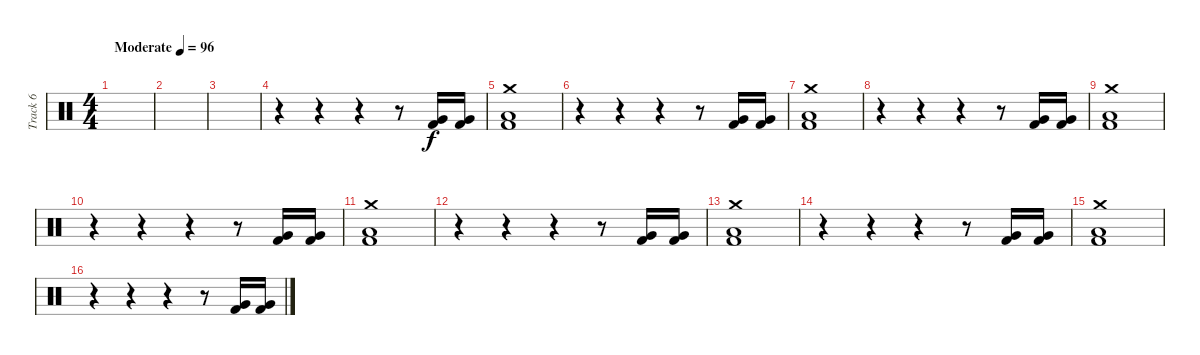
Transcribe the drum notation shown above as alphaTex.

\track ("Track 6" "Track 6") {instrument percussion}
\staff {score}
\articulation defaults
\ts (4 4)
\tempo (96 "Moderate")
\clef neutral
\ks c
|
|
|
r.4 r.4 r.4 r.8 ("Very Low Tom (hit)" "Kick (hit) 2").16 ("Very Low Tom (hit)" "Kick (hit) 2").16 |
("Crash medium (hit)" "Low Floor Tom (hit)" "Kick (hit) 2").1 |
r.4 r.4 r.4 r.8 ("Very Low Tom (hit)" "Kick (hit) 2").16 ("Very Low Tom (hit)" "Kick (hit) 2").16 |
("Crash medium (hit)" "Low Floor Tom (hit)" "Kick (hit) 2").1 |
r.4 r.4 r.4 r.8 ("Very Low Tom (hit)" "Kick (hit) 2").16 ("Very Low Tom (hit)" "Kick (hit) 2").16 |
("Crash medium (hit)" "Low Floor Tom (hit)" "Kick (hit) 2").1 |
r.4 r.4 r.4 r.8 ("Very Low Tom (hit)" "Kick (hit) 2").16 ("Very Low Tom (hit)" "Kick (hit) 2").16 |
("Crash medium (hit)" "Low Floor Tom (hit)" "Kick (hit) 2").1 |
r.4 r.4 r.4 r.8 ("Very Low Tom (hit)" "Kick (hit) 2").16 ("Very Low Tom (hit)" "Kick (hit) 2").16 |
("Crash medium (hit)" "Low Floor Tom (hit)" "Kick (hit) 2").1 |
r.4 r.4 r.4 r.8 ("Very Low Tom (hit)" "Kick (hit) 2").16 ("Very Low Tom (hit)" "Kick (hit) 2").16 |
("Crash medium (hit)" "Low Floor Tom (hit)" "Kick (hit) 2").1 |
r.4 r.4 r.4 r.8 ("Very Low Tom (hit)" "Kick (hit) 2").16 ("Very Low Tom (hit)" "Kick (hit) 2").16
